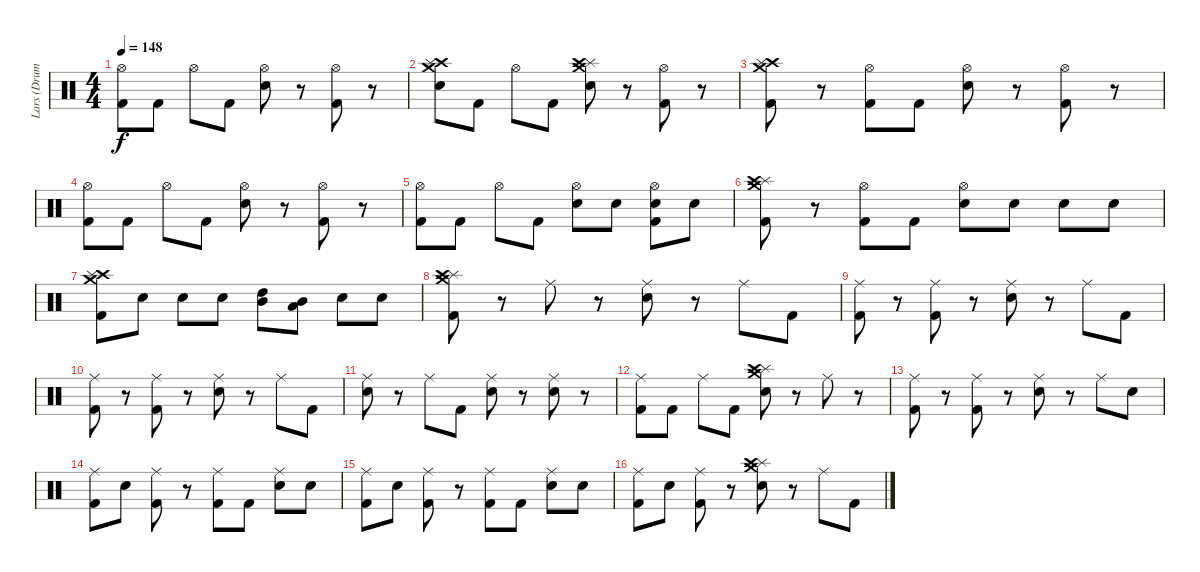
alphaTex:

\track ("Lars (Drums)" "Lars (Drum") {instrument percussion}
\staff {score}
\articulation defaults
\ts (4 4)
\tempo 148
\clef neutral
\ks c
("Hi-Hat (open)" "Kick (hit) 2").8{dy f} "Kick (hit) 2".8 "Hi-Hat (open)".8 "Kick (hit) 2".8 ("Hi-Hat (open)" "Snare (hit) 2").8 r.8 ("Hi-Hat (open)" "Kick (hit) 2").8 r.8 |
("Crash medium (hit)" "Crash high (hit)" "Splash (hit)" "Snare (hit) 2").8 "Kick (hit) 2".8 "Hi-Hat (open)".8 "Kick (hit) 2".8 ("Crash medium (hit)" "Splash (hit)" "Crash high (hit)" "Snare (hit) 2").8 r.8 ("Hi-Hat (open)" "Kick (hit) 2").8 r.8 |
("Crash high (hit)" "Splash (hit)" "Crash medium (hit)" "Kick (hit) 2").8 r.8 ("Hi-Hat (open)" "Kick (hit) 2").8 "Kick (hit) 2".8 ("Hi-Hat (open)" "Snare (hit) 2").8 r.8 ("Hi-Hat (open)" "Kick (hit) 2").8 r.8 |
("Hi-Hat (open)" "Kick (hit) 2").8 "Kick (hit) 2".8 "Hi-Hat (open)".8 "Kick (hit) 2".8 ("Hi-Hat (open)" "Snare (hit) 2").8 r.8 ("Hi-Hat (open)" "Kick (hit) 2").8 r.8 |
("Hi-Hat (open)" "Kick (hit) 2").8 "Kick (hit) 2".8 "Hi-Hat (open)".8 "Kick (hit) 2".8 ("Hi-Hat (open)" "Snare (hit) 2").8 "Snare (hit) 2".8 ("Snare (hit) 2" "Hi-Hat (open)" "Kick (hit) 2").8 "Snare (hit) 2".8 |
("Splash (hit)" "Crash medium (hit)" "Crash high (hit)" "Kick (hit) 2").8 r.8 ("Hi-Hat (open)" "Kick (hit) 2").8 "Kick (hit) 2".8 ("Hi-Hat (open)" "Snare (hit) 2").8 "Snare (hit) 2".8 "Snare (hit) 2".8 "Snare (hit) 2".8 |
("Crash high (hit)" "Splash (hit)" "Crash medium (hit)" "Kick (hit) 2").8 "Snare (hit) 2".8 "Snare (hit) 2".8 "Snare (hit) 2".8 ("Mid Tom (hit)" "High Tom (hit)").8 ("Low Tom (hit)" "Mid Tom (hit)").8 "Snare (hit) 2".8 "Snare (hit) 2".8 |
("Splash (hit)" "Crash medium (hit)" "Crash high (hit)" "Kick (hit) 2").8 r.8 "Ride (middle)".8 r.8 ("Ride (middle)" "Snare (hit) 2").8 r.8 "Ride (middle)".8 "Kick (hit) 2".8 |
("Ride (middle)" "Kick (hit) 2").8 r.8 ("Ride (middle)" "Kick (hit) 2").8 r.8 ("Ride (middle)" "Snare (hit) 2").8 r.8 "Ride (middle)".8 "Kick (hit) 2".8 |
("Ride (middle)" "Kick (hit) 2").8 r.8 ("Ride (middle)" "Kick (hit) 2").8 r.8 ("Ride (middle)" "Snare (hit) 2").8 r.8 "Ride (middle)".8 "Kick (hit) 2".8 |
("Ride (middle)" "Snare (hit) 2").8 r.8 "Ride (middle)".8 "Kick (hit) 2".8 ("Ride (middle)" "Snare (hit) 2").8 r.8 ("Ride (middle)" "Snare (hit) 2").8 r.8 |
("Ride (middle)" "Kick (hit) 2").8 "Kick (hit) 2".8 "Ride (middle)".8 "Kick (hit) 2".8 ("Crash medium (hit)" "Splash (hit)" "Crash high (hit)" "Snare (hit) 2").8 r.8 "Ride (middle)".8 r.8 |
("Ride (middle)" "Kick (hit) 2").8 r.8 ("Ride (middle)" "Kick (hit) 2").8 r.8 ("Ride (middle)" "Snare (hit) 2").8 r.8 "Ride (middle)".8 "Snare (hit) 2".8 |
("Kick (hit) 2" "Ride (middle)").8 "Snare (hit) 2".8 ("Kick (hit) 2" "Ride (middle)").8 r.8 ("Kick (hit) 2" "Ride (middle)").8 "Kick (hit) 2".8 ("Snare (hit) 2" "Ride (middle)").8 "Snare (hit) 2".8 |
("Kick (hit) 2" "Ride (middle)").8 "Snare (hit) 2".8 ("Kick (hit) 2" "Ride (middle)").8 r.8 ("Kick (hit) 2" "Ride (middle)").8 "Kick (hit) 2".8 ("Snare (hit) 2" "Ride (middle)").8 "Snare (hit) 2".8 |
("Ride (middle)" "Kick (hit) 2").8 "Snare (hit) 2".8 ("Ride (middle)" "Kick (hit) 2").8 r.8 ("Crash medium (hit)" "Splash (hit)" "Crash high (hit)" "Snare (hit) 2").8 r.8 "Ride (middle)".8 "Kick (hit) 2".8
